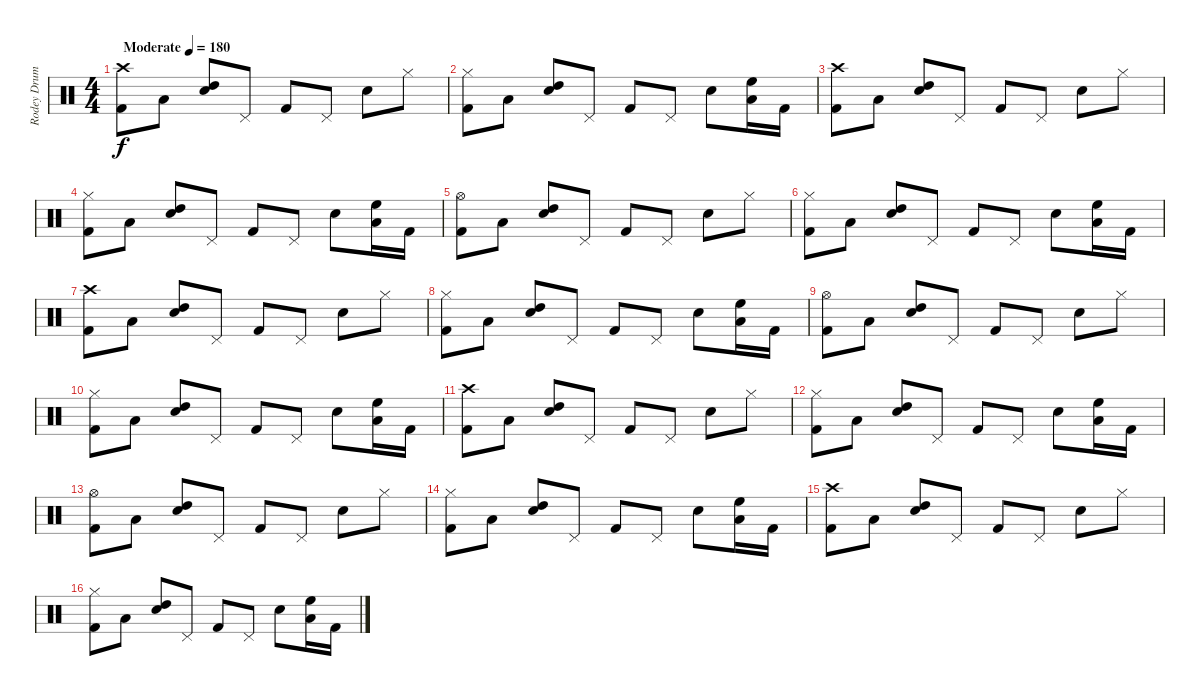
\track ("Rodey Drums" "Rodey Drum") {instrument percussion}
\staff {score}
\articulation defaults
\ts (4 4)
\tempo (180 "Moderate")
\clef neutral
\ks c
("Crash high (hit)" "Kick (hit) 2").8{dy f} "Low Tom (hit)".8 ("High Tom (hit)" "Electric Snare (hit)").8 "Pedal Hi-Hat (hit)".8 "Kick (hit) 2".8 "Pedal Hi-Hat (hit)".8 "Electric Snare (hit)".8 "Hi-Hat (closed)".8 |
("Hi-Hat (closed)" "Kick (hit) 2").8 "Low Tom (hit)".8 ("High Tom (hit)" "Electric Snare (hit)").8 "Pedal Hi-Hat (hit)".8 "Kick (hit) 2".8 "Pedal Hi-Hat (hit)".8 "Electric Snare (hit)".8 ("High Floor Tom (hit)" "Low Tom (hit)").16 "Kick (hit) 2".16 |
("Crash high (hit)" "Kick (hit) 2").8 "Low Tom (hit)".8 ("High Tom (hit)" "Electric Snare (hit)").8 "Pedal Hi-Hat (hit)".8 "Kick (hit) 2".8 "Pedal Hi-Hat (hit)".8 "Electric Snare (hit)".8 "Hi-Hat (closed)".8 |
("Hi-Hat (closed)" "Kick (hit) 2").8 "Low Tom (hit)".8 ("High Tom (hit)" "Electric Snare (hit)").8 "Pedal Hi-Hat (hit)".8 "Kick (hit) 2".8 "Pedal Hi-Hat (hit)".8 "Electric Snare (hit)".8 ("High Floor Tom (hit)" "Low Tom (hit)").16 "Kick (hit) 2".16 |
("Hi-Hat (open)" "Kick (hit) 2").8 "Low Tom (hit)".8 ("High Tom (hit)" "Electric Snare (hit)").8 "Pedal Hi-Hat (hit)".8 "Kick (hit) 2".8 "Pedal Hi-Hat (hit)".8 "Electric Snare (hit)".8 "Hi-Hat (closed)".8 |
("Hi-Hat (closed)" "Kick (hit) 2").8 "Low Tom (hit)".8 ("High Tom (hit)" "Electric Snare (hit)").8 "Pedal Hi-Hat (hit)".8 "Kick (hit) 2".8 "Pedal Hi-Hat (hit)".8 "Electric Snare (hit)".8 ("High Floor Tom (hit)" "Low Tom (hit)").16 "Kick (hit) 2".16 |
("Crash high (hit)" "Kick (hit) 2").8 "Low Tom (hit)".8 ("High Tom (hit)" "Electric Snare (hit)").8 "Pedal Hi-Hat (hit)".8 "Kick (hit) 2".8 "Pedal Hi-Hat (hit)".8 "Electric Snare (hit)".8 "Hi-Hat (closed)".8 |
("Hi-Hat (closed)" "Kick (hit) 2").8 "Low Tom (hit)".8 ("High Tom (hit)" "Electric Snare (hit)").8 "Pedal Hi-Hat (hit)".8 "Kick (hit) 2".8 "Pedal Hi-Hat (hit)".8 "Electric Snare (hit)".8 ("High Floor Tom (hit)" "Low Tom (hit)").16 "Kick (hit) 2".16 |
("Hi-Hat (open)" "Kick (hit) 2").8 "Low Tom (hit)".8 ("High Tom (hit)" "Electric Snare (hit)").8 "Pedal Hi-Hat (hit)".8 "Kick (hit) 2".8 "Pedal Hi-Hat (hit)".8 "Electric Snare (hit)".8 "Hi-Hat (closed)".8 |
("Hi-Hat (closed)" "Kick (hit) 2").8 "Low Tom (hit)".8 ("High Tom (hit)" "Electric Snare (hit)").8 "Pedal Hi-Hat (hit)".8 "Kick (hit) 2".8 "Pedal Hi-Hat (hit)".8 "Electric Snare (hit)".8 ("High Floor Tom (hit)" "Low Tom (hit)").16 "Kick (hit) 2".16 |
("Crash high (hit)" "Kick (hit) 2").8 "Low Tom (hit)".8 ("High Tom (hit)" "Electric Snare (hit)").8 "Pedal Hi-Hat (hit)".8 "Kick (hit) 2".8 "Pedal Hi-Hat (hit)".8 "Electric Snare (hit)".8 "Hi-Hat (closed)".8 |
("Hi-Hat (closed)" "Kick (hit) 2").8 "Low Tom (hit)".8 ("High Tom (hit)" "Electric Snare (hit)").8 "Pedal Hi-Hat (hit)".8 "Kick (hit) 2".8 "Pedal Hi-Hat (hit)".8 "Electric Snare (hit)".8 ("High Floor Tom (hit)" "Low Tom (hit)").16 "Kick (hit) 2".16 |
("Hi-Hat (open)" "Kick (hit) 2").8 "Low Tom (hit)".8 ("High Tom (hit)" "Electric Snare (hit)").8 "Pedal Hi-Hat (hit)".8 "Kick (hit) 2".8 "Pedal Hi-Hat (hit)".8 "Electric Snare (hit)".8 "Hi-Hat (closed)".8 |
("Hi-Hat (closed)" "Kick (hit) 2").8 "Low Tom (hit)".8 ("High Tom (hit)" "Electric Snare (hit)").8 "Pedal Hi-Hat (hit)".8 "Kick (hit) 2".8 "Pedal Hi-Hat (hit)".8 "Electric Snare (hit)".8 ("High Floor Tom (hit)" "Low Tom (hit)").16 "Kick (hit) 2".16 |
("Crash high (hit)" "Kick (hit) 2").8 "Low Tom (hit)".8 ("High Tom (hit)" "Electric Snare (hit)").8 "Pedal Hi-Hat (hit)".8 "Kick (hit) 2".8 "Pedal Hi-Hat (hit)".8 "Electric Snare (hit)".8 "Hi-Hat (closed)".8 |
("Hi-Hat (closed)" "Kick (hit) 2").8 "Low Tom (hit)".8 ("High Tom (hit)" "Electric Snare (hit)").8 "Pedal Hi-Hat (hit)".8 "Kick (hit) 2".8 "Pedal Hi-Hat (hit)".8 "Electric Snare (hit)".8 ("High Floor Tom (hit)" "Low Tom (hit)").16 "Kick (hit) 2".16
